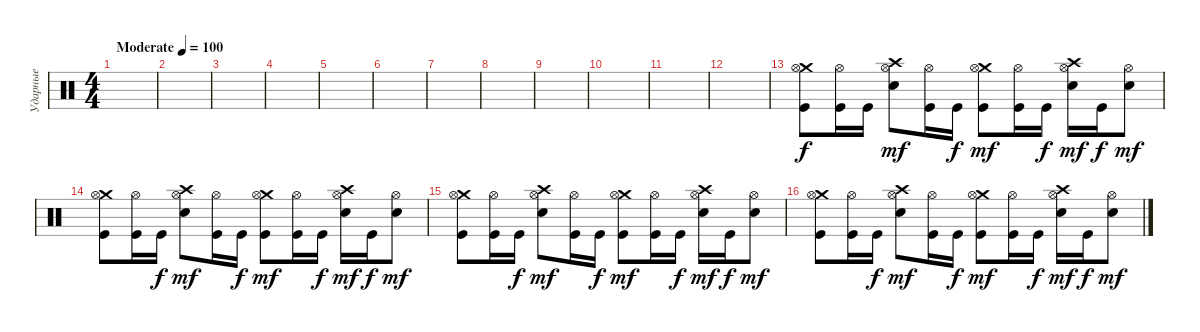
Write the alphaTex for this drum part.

\track ("Ударные" "Ударные") {instrument percussion}
\staff {score}
\articulation defaults
\ts (4 4)
\tempo (100 "Moderate")
\clef neutral
\ks c
|
|
|
|
|
|
|
|
|
|
|
|
("Crash medium (hit)" "Hi-Hat (open)" "Kick (hit)").8 ("Hi-Hat (open)" "Kick (hit)").16 "Kick (hit)".16{dy f} ("Crash high (hit)" "Hi-Hat (open)" "Electric Snare (hit)").8{dy mf} ("Hi-Hat (open)" "Kick (hit)").16 "Kick (hit)".16{dy f} ("Crash medium (hit)" "Hi-Hat (open)" "Kick (hit)").8{dy mf} ("Hi-Hat (open)" "Kick (hit)").16 "Kick (hit)".16{dy f} ("Crash high (hit)" "Hi-Hat (open)" "Electric Snare (hit)").16{dy mf} "Kick (hit)".16{dy f} ("Hi-Hat (open)" "Electric Snare (hit)").8{dy mf} |
("Crash medium (hit)" "Hi-Hat (open)" "Kick (hit)").8 ("Hi-Hat (open)" "Kick (hit)").16 "Kick (hit)".16{dy f} ("Crash high (hit)" "Hi-Hat (open)" "Electric Snare (hit)").8{dy mf} ("Hi-Hat (open)" "Kick (hit)").16 "Kick (hit)".16{dy f} ("Crash medium (hit)" "Hi-Hat (open)" "Kick (hit)").8{dy mf} ("Hi-Hat (open)" "Kick (hit)").16 "Kick (hit)".16{dy f} ("Crash high (hit)" "Hi-Hat (open)" "Electric Snare (hit)").16{dy mf} "Kick (hit)".16{dy f} ("Hi-Hat (open)" "Electric Snare (hit)").8{dy mf} |
("Crash medium (hit)" "Hi-Hat (open)" "Kick (hit)").8 ("Hi-Hat (open)" "Kick (hit)").16 "Kick (hit)".16{dy f} ("Crash high (hit)" "Hi-Hat (open)" "Electric Snare (hit)").8{dy mf} ("Hi-Hat (open)" "Kick (hit)").16 "Kick (hit)".16{dy f} ("Crash medium (hit)" "Hi-Hat (open)" "Kick (hit)").8{dy mf} ("Hi-Hat (open)" "Kick (hit)").16 "Kick (hit)".16{dy f} ("Crash high (hit)" "Hi-Hat (open)" "Electric Snare (hit)").16{dy mf} "Kick (hit)".16{dy f} ("Hi-Hat (open)" "Electric Snare (hit)").8{dy mf} |
("Crash medium (hit)" "Hi-Hat (open)" "Kick (hit)").8 ("Hi-Hat (open)" "Kick (hit)").16 "Kick (hit)".16{dy f} ("Crash high (hit)" "Hi-Hat (open)" "Electric Snare (hit)").8{dy mf} ("Hi-Hat (open)" "Kick (hit)").16 "Kick (hit)".16{dy f} ("Crash medium (hit)" "Hi-Hat (open)" "Kick (hit)").8{dy mf} ("Hi-Hat (open)" "Kick (hit)").16 "Kick (hit)".16{dy f} ("Crash high (hit)" "Hi-Hat (open)" "Electric Snare (hit)").16{dy mf} "Kick (hit)".16{dy f} ("Hi-Hat (open)" "Electric Snare (hit)").8{dy mf}
